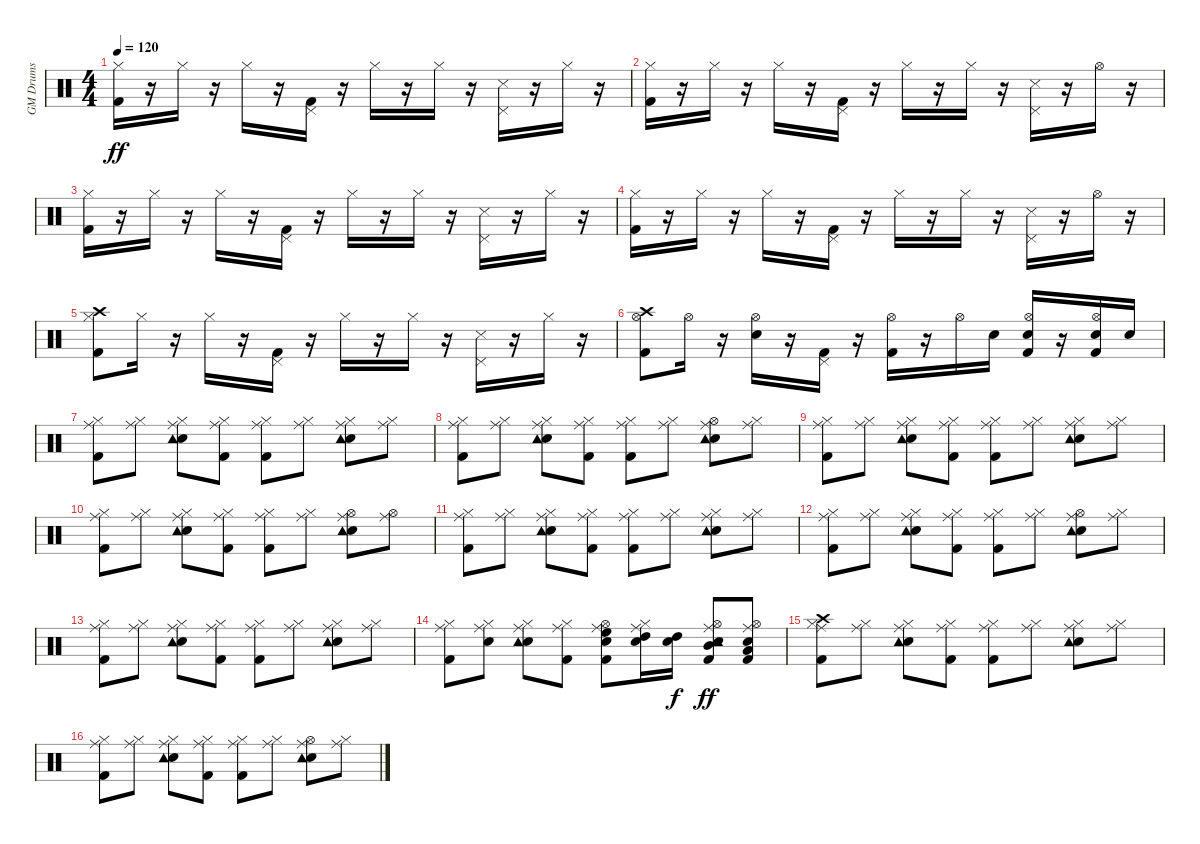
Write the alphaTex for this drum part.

\track ("GM Drums" "GM Drums") {instrument percussion}
\staff {score}
\articulation defaults
\ts (4 4)
\tempo 120
\clef neutral
\ks c
("Kick (hit) 2" "Hi-Hat (closed)").16{dy ff} r.16 "Hi-Hat (closed)".16 r.16 "Hi-Hat (closed)".16 r.16 ("Kick (hit) 2" "Pedal Hi-Hat (hit)").16 r.16 "Hi-Hat (closed)".16 r.16 "Hi-Hat (closed)".16 r.16 ("Snare (side stick) 3" "Pedal Hi-Hat (hit)").16 r.16 "Hi-Hat (closed)".16 r.16 |
("Kick (hit) 2" "Hi-Hat (closed)").16 r.16 "Hi-Hat (closed)".16 r.16 "Hi-Hat (closed)".16 r.16 ("Kick (hit) 2" "Pedal Hi-Hat (hit)").16 r.16 "Hi-Hat (closed)".16 r.16 "Hi-Hat (closed)".16 r.16 ("Snare (side stick) 3" "Pedal Hi-Hat (hit)").16 r.16 "Hi-Hat (open)".16 r.16 |
("Kick (hit) 2" "Hi-Hat (closed)").16 r.16 "Hi-Hat (closed)".16 r.16 "Hi-Hat (closed)".16 r.16 ("Kick (hit) 2" "Pedal Hi-Hat (hit)").16 r.16 "Hi-Hat (closed)".16 r.16 "Hi-Hat (closed)".16 r.16 ("Snare (side stick) 3" "Pedal Hi-Hat (hit)").16 r.16 "Hi-Hat (closed)".16 r.16 |
("Kick (hit) 2" "Hi-Hat (closed)").16 r.16 "Hi-Hat (closed)".16 r.16 "Hi-Hat (closed)".16 r.16 ("Kick (hit) 2" "Pedal Hi-Hat (hit)").16 r.16 "Hi-Hat (closed)".16 r.16 "Hi-Hat (closed)".16 r.16 ("Snare (side stick) 3" "Pedal Hi-Hat (hit)").16 r.16 "Hi-Hat (open)".16 r.16 |
("Kick (hit) 2" "Hi-Hat (closed)" "Crash high (hit)").8 "Hi-Hat (closed)".16 r.16 "Hi-Hat (closed)".16 r.16 ("Kick (hit) 2" "Pedal Hi-Hat (hit)").16 r.16 "Hi-Hat (closed)".16 r.16 "Hi-Hat (closed)".16 r.16 ("Snare (side stick) 3" "Pedal Hi-Hat (hit)").16 r.16 "Hi-Hat (closed)".16 r.16 |
("Kick (hit) 2" "Hi-Hat (open)" "Crash high (hit)").8 "Hi-Hat (open)".16 r.16 ("Electric Snare (hit)" "Hi-Hat (open)").16 r.16 ("Kick (hit) 2" "Pedal Hi-Hat (hit)").16 r.16 ("Kick (hit) 2" "Hi-Hat (open)").16 r.16 "Hi-Hat (open)".16 "Electric Snare (hit)".16 ("Kick (hit) 2" "Electric Snare (hit)" "Hi-Hat (open)").16 r.16 ("Kick (hit) 2" "Electric Snare (hit)" "Hi-Hat (open)").16 "Electric Snare (hit)".16 |
("Kick (hit) 2" "Hi-Hat (closed)" "Ride (middle)").8 ("Hi-Hat (closed)" "Ride (middle)").8 ("Electric Snare (hit)" "Hi-Hat (closed)" "Ride (middle)" "Tambourine (hit)").8 ("Kick (hit) 2" "Hi-Hat (closed)" "Ride (middle)").8 ("Kick (hit) 2" "Hi-Hat (closed)" "Ride (middle)").8 ("Hi-Hat (closed)" "Ride (middle)").8 ("Electric Snare (hit)" "Hi-Hat (closed)" "Ride (middle)" "Tambourine (hit)").8 ("Hi-Hat (closed)" "Ride (middle)").8 |
("Kick (hit) 2" "Hi-Hat (closed)" "Ride (middle)").8 ("Hi-Hat (closed)" "Ride (middle)").8 ("Electric Snare (hit)" "Hi-Hat (closed)" "Ride (middle)" "Tambourine (hit)").8 ("Kick (hit) 2" "Hi-Hat (closed)" "Ride (middle)").8 ("Kick (hit) 2" "Hi-Hat (closed)" "Ride (middle)").8 ("Hi-Hat (closed)" "Ride (middle)").8 ("Electric Snare (hit)" "Hi-Hat (open)" "Ride (middle)" "Tambourine (hit)").8 ("Hi-Hat (closed)" "Ride (middle)").8 |
("Kick (hit) 2" "Hi-Hat (closed)" "Ride (middle)").8 ("Hi-Hat (closed)" "Ride (middle)").8 ("Electric Snare (hit)" "Hi-Hat (closed)" "Ride (middle)" "Tambourine (hit)").8 ("Kick (hit) 2" "Hi-Hat (closed)" "Ride (middle)").8 ("Kick (hit) 2" "Hi-Hat (closed)" "Ride (middle)").8 ("Hi-Hat (closed)" "Ride (middle)").8 ("Electric Snare (hit)" "Hi-Hat (closed)" "Ride (middle)" "Tambourine (hit)").8 ("Hi-Hat (closed)" "Ride (middle)").8 |
("Kick (hit) 2" "Hi-Hat (closed)" "Ride (middle)").8 ("Hi-Hat (closed)" "Ride (middle)").8 ("Electric Snare (hit)" "Hi-Hat (closed)" "Ride (middle)" "Tambourine (hit)").8 ("Kick (hit) 2" "Hi-Hat (closed)" "Ride (middle)").8 ("Kick (hit) 2" "Hi-Hat (closed)" "Ride (middle)").8 ("Hi-Hat (closed)" "Ride (middle)").8 ("Electric Snare (hit)" "Hi-Hat (open)" "Ride (middle)" "Tambourine (hit)").8 ("Hi-Hat (open)" "Ride (middle)").8 |
("Kick (hit) 2" "Hi-Hat (closed)" "Ride (middle)").8 ("Hi-Hat (closed)" "Ride (middle)").8 ("Electric Snare (hit)" "Hi-Hat (closed)" "Ride (middle)" "Tambourine (hit)").8 ("Kick (hit) 2" "Hi-Hat (closed)" "Ride (middle)").8 ("Kick (hit) 2" "Hi-Hat (closed)" "Ride (middle)").8 ("Hi-Hat (closed)" "Ride (middle)").8 ("Electric Snare (hit)" "Hi-Hat (closed)" "Ride (middle)" "Tambourine (hit)").8 ("Hi-Hat (closed)" "Ride (middle)").8 |
("Kick (hit) 2" "Hi-Hat (closed)" "Ride (middle)").8 ("Hi-Hat (closed)" "Ride (middle)").8 ("Electric Snare (hit)" "Hi-Hat (closed)" "Ride (middle)" "Tambourine (hit)").8 ("Kick (hit) 2" "Hi-Hat (closed)" "Ride (middle)").8 ("Kick (hit) 2" "Hi-Hat (closed)" "Ride (middle)").8 ("Hi-Hat (closed)" "Ride (middle)").8 ("Electric Snare (hit)" "Hi-Hat (open)" "Ride (middle)" "Tambourine (hit)").8 ("Hi-Hat (closed)" "Ride (middle)").8 |
("Kick (hit) 2" "Hi-Hat (closed)" "Ride (middle)").8 ("Hi-Hat (closed)" "Ride (middle)").8 ("Electric Snare (hit)" "Hi-Hat (closed)" "Ride (middle)" "Tambourine (hit)").8 ("Kick (hit) 2" "Hi-Hat (closed)" "Ride (middle)").8 ("Kick (hit) 2" "Hi-Hat (closed)" "Ride (middle)").8 ("Hi-Hat (closed)" "Ride (middle)").8 ("Electric Snare (hit)" "Hi-Hat (closed)" "Ride (middle)" "Tambourine (hit)").8 ("Hi-Hat (closed)" "Ride (middle)").8 |
("Kick (hit) 2" "Hi-Hat (closed)" "Ride (middle)").8 ("Electric Snare (hit)" "Hi-Hat (closed)" "Ride (middle)").8 ("Electric Snare (hit)" "Hi-Hat (closed)" "Ride (middle)" "Tambourine (hit)").8 ("Kick (hit) 2" "Hi-Hat (closed)" "Ride (middle)").8 ("Kick (hit) 2" "Electric Snare (hit)" "Hi-Hat (open)" "High Floor Tom (hit)" "Ride (middle)").8 ("Electric Snare (hit)" "Hi-Hat (closed)" "High Tom (hit)" "Ride (middle)").16 ("Electric Snare (hit)" "High Tom (hit)").16{dy f} ("Kick (hit) 2" "Electric Snare (hit)" "Hi-Hat (open)" "Mid Tom (hit)" "Ride (middle)" "Tambourine (hit)").8{dy ff} ("Kick (hit) 2" "Electric Snare (hit)" "Low Tom (hit)" "Hi-Hat (open)" "Ride (middle)").8 |
("Kick (hit) 2" "Hi-Hat (closed)" "Crash high (hit)" "Ride (middle)").8 ("Hi-Hat (closed)" "Ride (middle)").8 ("Electric Snare (hit)" "Hi-Hat (closed)" "Ride (middle)" "Tambourine (hit)").8 ("Kick (hit) 2" "Hi-Hat (closed)" "Ride (middle)").8 ("Kick (hit) 2" "Hi-Hat (closed)" "Ride (middle)").8 ("Hi-Hat (closed)" "Ride (middle)").8 ("Electric Snare (hit)" "Hi-Hat (closed)" "Ride (middle)" "Tambourine (hit)").8 ("Hi-Hat (closed)" "Ride (middle)").8 |
("Kick (hit) 2" "Hi-Hat (closed)" "Ride (middle)").8 ("Hi-Hat (closed)" "Ride (middle)").8 ("Electric Snare (hit)" "Hi-Hat (closed)" "Ride (middle)" "Tambourine (hit)").8 ("Kick (hit) 2" "Hi-Hat (closed)" "Ride (middle)").8 ("Kick (hit) 2" "Hi-Hat (closed)" "Ride (middle)").8 ("Hi-Hat (closed)" "Ride (middle)").8 ("Electric Snare (hit)" "Hi-Hat (open)" "Ride (middle)" "Tambourine (hit)").8 ("Hi-Hat (closed)" "Ride (middle)").8
